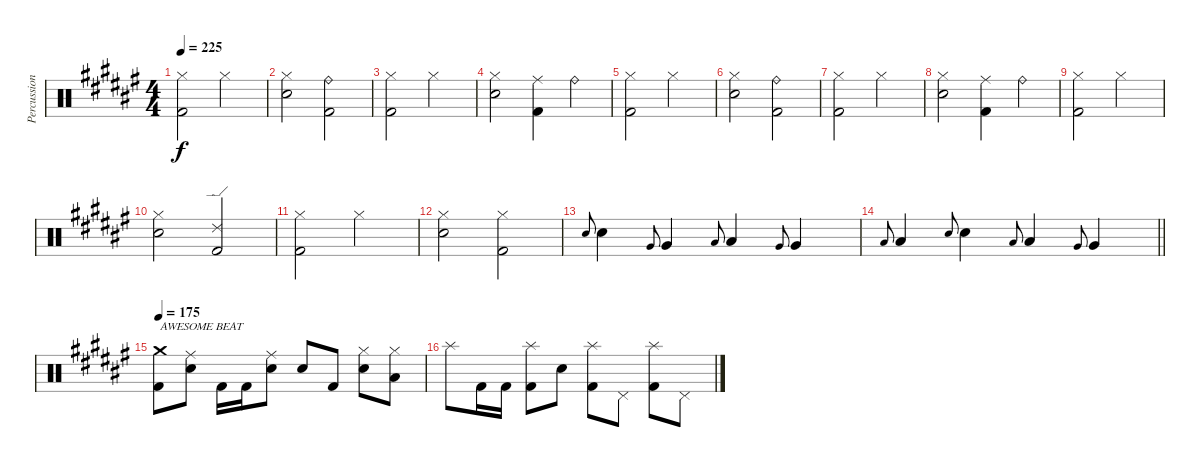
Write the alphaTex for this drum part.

\track ("Percussions" "Percussion") {instrument percussion}
\staff {score}
\articulation defaults
\ts (4 4)
\tempo 225
\clef neutral
\ks f#
("Hi-Hat (closed)" "Kick (hit) 2").2{dy f} "Hi-Hat (closed)".2 |
("Hi-Hat (closed)" "Snare (hit) 2").2 ("Ride (bell)" "Kick (hit) 2").2 |
("Hi-Hat (closed)" "Kick (hit) 2").2 "Hi-Hat (closed)".2 |
("Hi-Hat (closed)" "Snare (hit) 2").2 ("Ride (middle)" "Kick (hit) 2").4 "Ride (bell)".4 |
("Hi-Hat (closed)" "Kick (hit) 2").2 "Hi-Hat (closed)".2 |
("Hi-Hat (closed)" "Snare (hit) 2").2 ("Ride (bell)" "Kick (hit) 2").2 |
("Hi-Hat (closed)" "Kick (hit) 2").2 "Hi-Hat (closed)".2 |
("Hi-Hat (closed)" "Snare (hit) 2").2 ("Ride (middle)" "Kick (hit) 2").4 "Ride (bell)".4 |
("Hi-Hat (closed)" "Kick (hit) 2").2 "Hi-Hat (closed)".2 |
("Hi-Hat (closed)" "Snare (hit) 2").2 ("Ride (edge) 2" "Kick (hit) 2").2 |
("Hi-Hat (closed)" "Kick (hit) 2").2 "Hi-Hat (closed)".2 |
("Hi-Hat (closed)" "Snare (hit) 2").2 ("Hi-Hat (closed)" "Kick (hit) 2").2 |
"Snare (hit) 2".8{gr onbeat} "Snare (hit) 2".4 "Very Low Tom (hit)".8{gr onbeat} "Very Low Tom (hit)".4 "Low Tom (hit)".8{gr onbeat} "Low Tom (hit)".4 "Very Low Tom (hit)".8{gr onbeat} "Very Low Tom (hit)".4 |
\barLineRight lightlight "Low Tom (hit)".8{gr onbeat} "Low Tom (hit)".4 "Snare (hit) 2".8{gr onbeat} "Snare (hit) 2".4 "Low Tom (hit)".8{gr onbeat} "Low Tom (hit)".4 "Very Low Tom (hit)".8{gr onbeat} "Very Low Tom (hit)".4
|
\tempo 175
("Crash medium (hit)" "Kick (hit) 2").8{txt "AWESOME BEAT"} ("Ride (middle)" "Snare (hit) 2").8 "Kick (hit) 2".16 "Kick (hit) 2".16 ("Ride (middle)" "Snare (hit) 2").8 "Snare (hit) 2".8 "Kick (hit) 2".8 ("Hi-Hat (closed)" "Snare (hit) 2").8 ("Hi-Hat (closed)" "Low Floor Tom (hit)").8 |
"Splash (hit)".8 "Kick (hit) 2".16 "Kick (hit) 2".16 ("Splash (hit)" "Kick (hit) 2").8 "Snare (hit) 2".8 ("Splash (hit)" "Kick (hit) 2").8 "Pedal Hi-Hat (hit)".8 ("Splash (hit)" "Kick (hit) 2").8 "Pedal Hi-Hat (hit)".8
